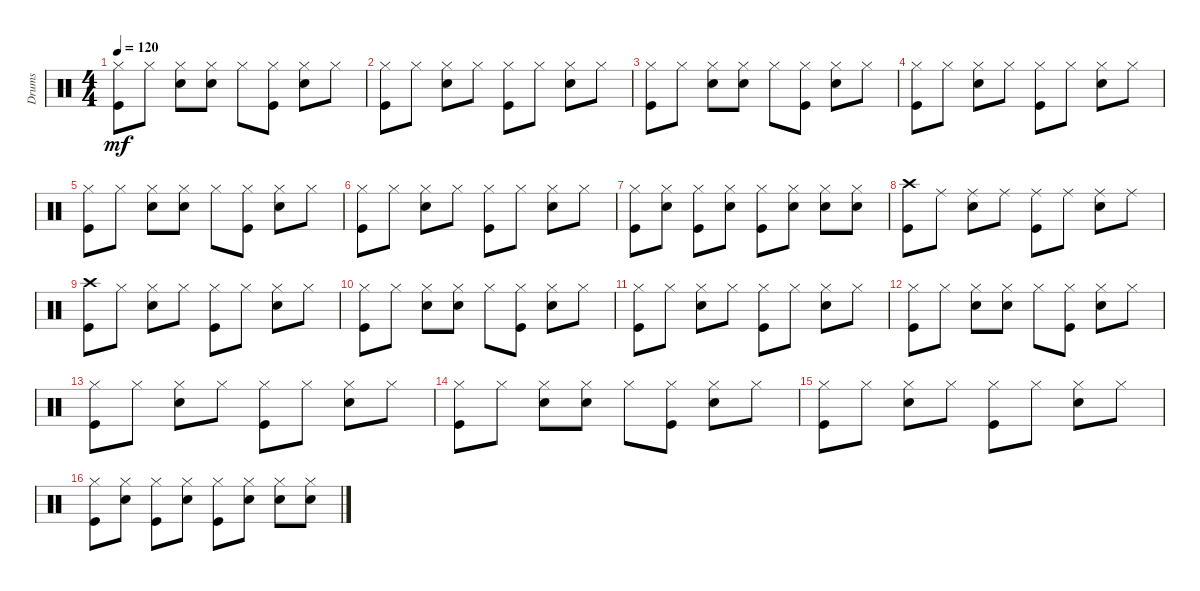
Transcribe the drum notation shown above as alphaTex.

\track ("Drums" "Drums") {instrument percussion}
\staff {score}
\articulation defaults
\ts (4 4)
\tempo 120
\clef neutral
\ks c
("Hi-Hat (closed)" "Kick (hit)").8{dy mf} "Hi-Hat (closed)".8 ("Snare (hit) 2" "Hi-Hat (closed)").8 ("Snare (hit) 2" "Hi-Hat (closed)").8 "Hi-Hat (closed)".8 ("Hi-Hat (closed)" "Kick (hit)").8 ("Snare (hit) 2" "Hi-Hat (closed)").8 "Hi-Hat (closed)".8 |
("Hi-Hat (closed)" "Kick (hit)").8 "Hi-Hat (closed)".8 ("Snare (hit) 2" "Hi-Hat (closed)").8 "Hi-Hat (closed)".8 ("Hi-Hat (closed)" "Kick (hit)").8 "Hi-Hat (closed)".8 ("Snare (hit) 2" "Hi-Hat (closed)").8 "Hi-Hat (closed)".8 |
("Hi-Hat (closed)" "Kick (hit)").8 "Hi-Hat (closed)".8 ("Snare (hit) 2" "Hi-Hat (closed)").8 ("Snare (hit) 2" "Hi-Hat (closed)").8 "Hi-Hat (closed)".8 ("Hi-Hat (closed)" "Kick (hit)").8 ("Snare (hit) 2" "Hi-Hat (closed)").8 "Hi-Hat (closed)".8 |
("Hi-Hat (closed)" "Kick (hit)").8 "Hi-Hat (closed)".8 ("Snare (hit) 2" "Hi-Hat (closed)").8 "Hi-Hat (closed)".8 ("Hi-Hat (closed)" "Kick (hit)").8 "Hi-Hat (closed)".8 ("Snare (hit) 2" "Hi-Hat (closed)").8 "Hi-Hat (closed)".8 |
("Hi-Hat (closed)" "Kick (hit)").8 "Hi-Hat (closed)".8 ("Snare (hit) 2" "Hi-Hat (closed)").8 ("Snare (hit) 2" "Hi-Hat (closed)").8 "Hi-Hat (closed)".8 ("Hi-Hat (closed)" "Kick (hit)").8 ("Snare (hit) 2" "Hi-Hat (closed)").8 "Hi-Hat (closed)".8 |
("Kick (hit)" "Hi-Hat (closed)").8 "Hi-Hat (closed)".8 ("Snare (hit) 2" "Hi-Hat (closed)").8 "Hi-Hat (closed)".8 ("Kick (hit)" "Hi-Hat (closed)").8 "Hi-Hat (closed)".8 ("Snare (hit) 2" "Hi-Hat (closed)").8 "Hi-Hat (closed)".8 |
("Kick (hit)" "Hi-Hat (closed)").8 ("Snare (hit) 2" "Hi-Hat (closed)").8 ("Kick (hit)" "Hi-Hat (closed)").8 ("Snare (hit) 2" "Hi-Hat (closed)").8 ("Kick (hit)" "Hi-Hat (closed)").8 ("Snare (hit) 2" "Hi-Hat (closed)").8 ("Snare (hit) 2" "Hi-Hat (closed)").8 ("Snare (hit) 2" "Hi-Hat (closed)").8 |
("Kick (hit)" "Crash high (hit)").8 "Ride (middle)".8 ("Snare (hit) 2" "Ride (middle)").8 "Ride (middle)".8 ("Kick (hit)" "Ride (middle)").8 "Ride (middle)".8 ("Snare (hit) 2" "Ride (middle)").8 "Ride (middle)".8 |
("Crash high (hit)" "Kick (hit)").8 "Hi-Hat (closed)".8 ("Snare (hit) 2" "Hi-Hat (closed)").8 "Hi-Hat (closed)".8 ("Hi-Hat (closed)" "Kick (hit)").8 "Hi-Hat (closed)".8 ("Snare (hit) 2" "Hi-Hat (closed)").8 "Hi-Hat (closed)".8 |
("Kick (hit)" "Hi-Hat (closed)").8 "Hi-Hat (closed)".8 ("Snare (hit) 2" "Hi-Hat (closed)").8 ("Snare (hit) 2" "Hi-Hat (closed)").8 "Hi-Hat (closed)".8 ("Kick (hit)" "Hi-Hat (closed)").8 ("Snare (hit) 2" "Hi-Hat (closed)").8 "Hi-Hat (closed)".8 |
("Kick (hit)" "Hi-Hat (closed)").8 "Hi-Hat (closed)".8 ("Snare (hit) 2" "Hi-Hat (closed)").8 "Hi-Hat (closed)".8 ("Kick (hit)" "Hi-Hat (closed)").8 "Hi-Hat (closed)".8 ("Snare (hit) 2" "Hi-Hat (closed)").8 "Hi-Hat (closed)".8 |
("Kick (hit)" "Hi-Hat (closed)").8 "Hi-Hat (closed)".8 ("Snare (hit) 2" "Hi-Hat (closed)").8 ("Snare (hit) 2" "Hi-Hat (closed)").8 "Hi-Hat (closed)".8 ("Kick (hit)" "Hi-Hat (closed)").8 ("Snare (hit) 2" "Hi-Hat (closed)").8 "Hi-Hat (closed)".8 |
("Kick (hit)" "Hi-Hat (closed)").8 "Hi-Hat (closed)".8 ("Snare (hit) 2" "Hi-Hat (closed)").8 "Hi-Hat (closed)".8 ("Kick (hit)" "Hi-Hat (closed)").8 "Hi-Hat (closed)".8 ("Snare (hit) 2" "Hi-Hat (closed)").8 "Hi-Hat (closed)".8 |
("Kick (hit)" "Hi-Hat (closed)").8 "Hi-Hat (closed)".8 ("Snare (hit) 2" "Hi-Hat (closed)").8 ("Snare (hit) 2" "Hi-Hat (closed)").8 "Hi-Hat (closed)".8 ("Kick (hit)" "Hi-Hat (closed)").8 ("Snare (hit) 2" "Hi-Hat (closed)").8 "Hi-Hat (closed)".8 |
("Hi-Hat (closed)" "Kick (hit)").8 "Hi-Hat (closed)".8 ("Snare (hit) 2" "Hi-Hat (closed)").8 "Hi-Hat (closed)".8 ("Hi-Hat (closed)" "Kick (hit)").8 "Hi-Hat (closed)".8 ("Snare (hit) 2" "Hi-Hat (closed)").8 "Hi-Hat (closed)".8 |
("Hi-Hat (closed)" "Kick (hit)").8 ("Snare (hit) 2" "Hi-Hat (closed)").8 ("Hi-Hat (closed)" "Kick (hit)").8 ("Snare (hit) 2" "Hi-Hat (closed)").8 ("Hi-Hat (closed)" "Kick (hit)").8 ("Snare (hit) 2" "Hi-Hat (closed)").8 ("Snare (hit) 2" "Hi-Hat (closed)").8 ("Snare (hit) 2" "Hi-Hat (closed)").8
